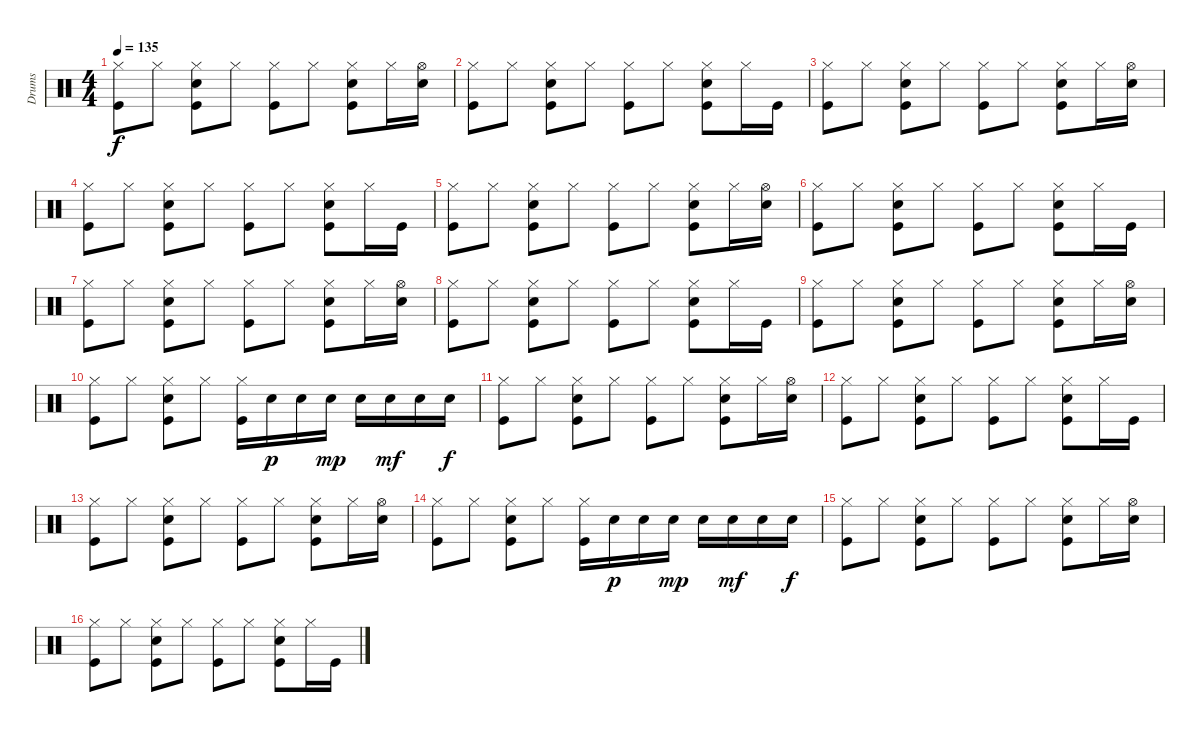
\track ("Drums" "Drums") {instrument percussion}
\staff {score}
\articulation defaults
\ts (4 4)
\tempo 135
\clef neutral
\ks c
("Kick (hit)" "Hi-Hat (closed)").8{dy f} "Hi-Hat (closed)".8 ("Kick (hit)" "Electric Snare (hit)" "Hi-Hat (closed)").8 "Hi-Hat (closed)".8 ("Kick (hit)" "Hi-Hat (closed)").8 "Hi-Hat (closed)".8 ("Kick (hit)" "Electric Snare (hit)" "Hi-Hat (closed)").8 "Hi-Hat (closed)".16 ("Electric Snare (hit)" "Hi-Hat (open)").16 |
("Kick (hit)" "Hi-Hat (closed)").8 "Hi-Hat (closed)".8 ("Kick (hit)" "Electric Snare (hit)" "Hi-Hat (closed)").8 "Hi-Hat (closed)".8 ("Kick (hit)" "Hi-Hat (closed)").8 "Hi-Hat (closed)".8 ("Kick (hit)" "Electric Snare (hit)" "Hi-Hat (closed)").8 "Hi-Hat (closed)".16 "Kick (hit)".16 |
("Kick (hit)" "Hi-Hat (closed)").8 "Hi-Hat (closed)".8 ("Kick (hit)" "Electric Snare (hit)" "Hi-Hat (closed)").8 "Hi-Hat (closed)".8 ("Kick (hit)" "Hi-Hat (closed)").8 "Hi-Hat (closed)".8 ("Kick (hit)" "Electric Snare (hit)" "Hi-Hat (closed)").8 "Hi-Hat (closed)".16 ("Electric Snare (hit)" "Hi-Hat (open)").16 |
("Kick (hit)" "Hi-Hat (closed)").8 "Hi-Hat (closed)".8 ("Kick (hit)" "Electric Snare (hit)" "Hi-Hat (closed)").8 "Hi-Hat (closed)".8 ("Kick (hit)" "Hi-Hat (closed)").8 "Hi-Hat (closed)".8 ("Kick (hit)" "Electric Snare (hit)" "Hi-Hat (closed)").8 "Hi-Hat (closed)".16 "Kick (hit)".16 |
("Kick (hit)" "Hi-Hat (closed)").8 "Hi-Hat (closed)".8 ("Kick (hit)" "Electric Snare (hit)" "Hi-Hat (closed)").8 "Hi-Hat (closed)".8 ("Kick (hit)" "Hi-Hat (closed)").8 "Hi-Hat (closed)".8 ("Kick (hit)" "Electric Snare (hit)" "Hi-Hat (closed)").8 "Hi-Hat (closed)".16 ("Electric Snare (hit)" "Hi-Hat (open)").16 |
("Kick (hit)" "Hi-Hat (closed)").8 "Hi-Hat (closed)".8 ("Kick (hit)" "Electric Snare (hit)" "Hi-Hat (closed)").8 "Hi-Hat (closed)".8 ("Kick (hit)" "Hi-Hat (closed)").8 "Hi-Hat (closed)".8 ("Kick (hit)" "Electric Snare (hit)" "Hi-Hat (closed)").8 "Hi-Hat (closed)".16 "Kick (hit)".16 |
("Kick (hit)" "Hi-Hat (closed)").8 "Hi-Hat (closed)".8 ("Kick (hit)" "Electric Snare (hit)" "Hi-Hat (closed)").8 "Hi-Hat (closed)".8 ("Kick (hit)" "Hi-Hat (closed)").8 "Hi-Hat (closed)".8 ("Kick (hit)" "Electric Snare (hit)" "Hi-Hat (closed)").8 "Hi-Hat (closed)".16 ("Electric Snare (hit)" "Hi-Hat (open)").16 |
("Kick (hit)" "Hi-Hat (closed)").8 "Hi-Hat (closed)".8 ("Kick (hit)" "Electric Snare (hit)" "Hi-Hat (closed)").8 "Hi-Hat (closed)".8 ("Kick (hit)" "Hi-Hat (closed)").8 "Hi-Hat (closed)".8 ("Kick (hit)" "Electric Snare (hit)" "Hi-Hat (closed)").8 "Hi-Hat (closed)".16 "Kick (hit)".16 |
("Kick (hit)" "Hi-Hat (closed)").8 "Hi-Hat (closed)".8 ("Kick (hit)" "Electric Snare (hit)" "Hi-Hat (closed)").8 "Hi-Hat (closed)".8 ("Kick (hit)" "Hi-Hat (closed)").8 "Hi-Hat (closed)".8 ("Kick (hit)" "Electric Snare (hit)" "Hi-Hat (closed)").8 "Hi-Hat (closed)".16 ("Electric Snare (hit)" "Hi-Hat (open)").16 |
("Kick (hit)" "Hi-Hat (closed)").8 "Hi-Hat (closed)".8 ("Kick (hit)" "Electric Snare (hit)" "Hi-Hat (closed)").8 "Hi-Hat (closed)".8 ("Kick (hit)" "Hi-Hat (closed)").16 "Electric Snare (hit)".16{dy p} "Electric Snare (hit)".16 "Electric Snare (hit)".16{dy mp} "Electric Snare (hit)".16 "Electric Snare (hit)".16{dy mf} "Electric Snare (hit)".16 "Electric Snare (hit)".16{dy f} |
("Kick (hit)" "Hi-Hat (closed)").8 "Hi-Hat (closed)".8 ("Kick (hit)" "Electric Snare (hit)" "Hi-Hat (closed)").8 "Hi-Hat (closed)".8 ("Kick (hit)" "Hi-Hat (closed)").8 "Hi-Hat (closed)".8 ("Kick (hit)" "Electric Snare (hit)" "Hi-Hat (closed)").8 "Hi-Hat (closed)".16 ("Electric Snare (hit)" "Hi-Hat (open)").16 |
("Kick (hit)" "Hi-Hat (closed)").8 "Hi-Hat (closed)".8 ("Kick (hit)" "Electric Snare (hit)" "Hi-Hat (closed)").8 "Hi-Hat (closed)".8 ("Kick (hit)" "Hi-Hat (closed)").8 "Hi-Hat (closed)".8 ("Kick (hit)" "Electric Snare (hit)" "Hi-Hat (closed)").8 "Hi-Hat (closed)".16 "Kick (hit)".16 |
("Kick (hit)" "Hi-Hat (closed)").8 "Hi-Hat (closed)".8 ("Kick (hit)" "Electric Snare (hit)" "Hi-Hat (closed)").8 "Hi-Hat (closed)".8 ("Kick (hit)" "Hi-Hat (closed)").8 "Hi-Hat (closed)".8 ("Kick (hit)" "Electric Snare (hit)" "Hi-Hat (closed)").8 "Hi-Hat (closed)".16 ("Electric Snare (hit)" "Hi-Hat (open)").16 |
("Kick (hit)" "Hi-Hat (closed)").8 "Hi-Hat (closed)".8 ("Kick (hit)" "Electric Snare (hit)" "Hi-Hat (closed)").8 "Hi-Hat (closed)".8 ("Kick (hit)" "Hi-Hat (closed)").16 "Electric Snare (hit)".16{dy p} "Electric Snare (hit)".16 "Electric Snare (hit)".16{dy mp} "Electric Snare (hit)".16 "Electric Snare (hit)".16{dy mf} "Electric Snare (hit)".16 "Electric Snare (hit)".16{dy f} |
("Kick (hit)" "Hi-Hat (closed)").8 "Hi-Hat (closed)".8 ("Kick (hit)" "Electric Snare (hit)" "Hi-Hat (closed)").8 "Hi-Hat (closed)".8 ("Kick (hit)" "Hi-Hat (closed)").8 "Hi-Hat (closed)".8 ("Kick (hit)" "Electric Snare (hit)" "Hi-Hat (closed)").8 "Hi-Hat (closed)".16 ("Electric Snare (hit)" "Hi-Hat (open)").16 |
("Kick (hit)" "Hi-Hat (closed)").8 "Hi-Hat (closed)".8 ("Kick (hit)" "Electric Snare (hit)" "Hi-Hat (closed)").8 "Hi-Hat (closed)".8 ("Kick (hit)" "Hi-Hat (closed)").8 "Hi-Hat (closed)".8 ("Kick (hit)" "Electric Snare (hit)" "Hi-Hat (closed)").8 "Hi-Hat (closed)".16 "Kick (hit)".16
